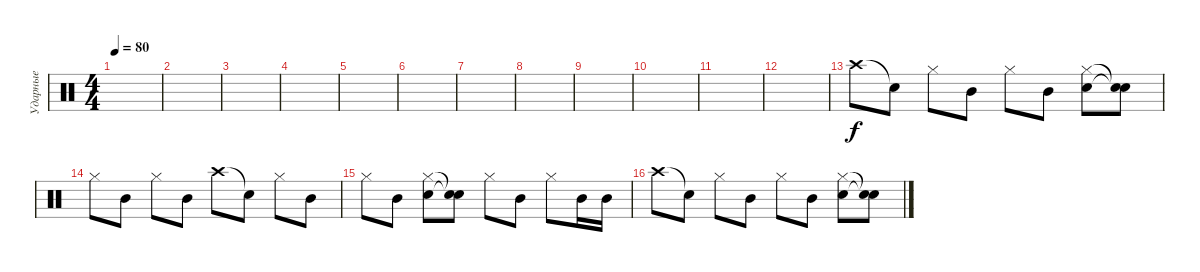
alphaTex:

\track ("Ударные" "Ударные") {instrument percussion}
\staff {score}
\articulation defaults
\ts (4 4)
\tempo 80
\clef neutral
\ks c
|
|
|
|
|
|
|
|
|
|
|
|
"Crash high (hit)".8 "Snare (hit)"{t}.8 "Hi-Hat (closed)".8 "Mid Tom (hit)".8 "Hi-Hat (closed)".8 "Mid Tom (hit)".8 ("Electric Snare (hit)" "Hi-Hat (closed)").8 ("Snare (hit)"{t} "Snare (hit)"{t}).8 |
"Hi-Hat (closed)".8 "Mid Tom (hit)".8 "Hi-Hat (closed)".8 "Mid Tom (hit)".8 "Crash high (hit)".8 "Snare (hit)"{t}.8 "Hi-Hat (closed)".8 "Mid Tom (hit)".8 |
"Hi-Hat (closed)".8 "Mid Tom (hit)".8 ("Electric Snare (hit)" "Hi-Hat (closed)").8 ("Snare (hit)"{t} "Snare (hit)"{t}).8 "Hi-Hat (closed)".8 "Mid Tom (hit)".8 "Hi-Hat (closed)".8 "Mid Tom (hit)".16 "Mid Tom (hit)".16 |
"Crash high (hit)".8 "Snare (hit)"{t}.8 "Hi-Hat (closed)".8 "Mid Tom (hit)".8 "Hi-Hat (closed)".8 "Mid Tom (hit)".8 ("Electric Snare (hit)" "Hi-Hat (closed)").8 ("Snare (hit)"{t} "Snare (hit)"{t}).8
